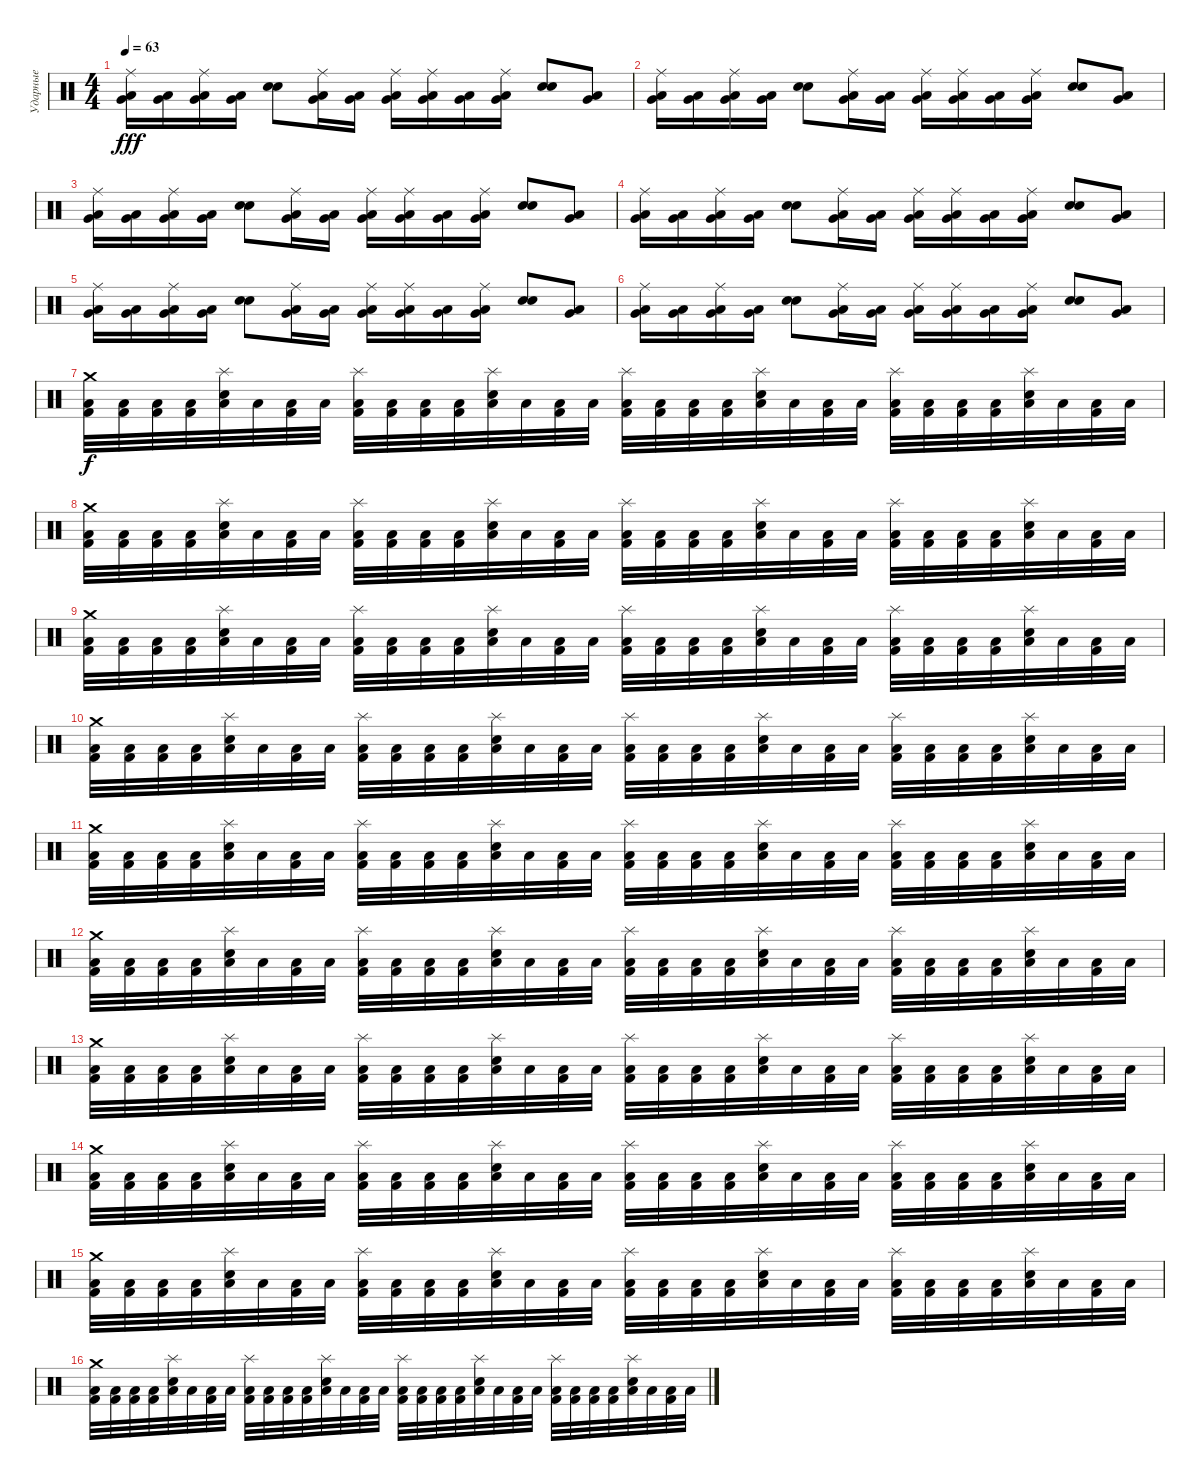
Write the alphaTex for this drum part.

\track ("Ударные" "Ударные") {instrument percussion}
\staff {score}
\articulation defaults
\ts (4 4)
\tempo 63
\clef neutral
\ks c
("Ride (middle)" "Low Tom (hit)" "Very Low Tom (hit)").16{dy fff} ("Low Tom (hit)" "Very Low Tom (hit)").16 ("Ride (middle)" "Low Tom (hit)" "Very Low Tom (hit)").16 ("Very Low Tom (hit)" "Low Floor Tom (hit)").16 ("Electric Snare (hit)" "Electric Snare (hit)").8 ("Ride (middle)" "Low Tom (hit)" "Very Low Tom (hit)").16 ("Very Low Tom (hit)" "Low Floor Tom (hit)").16 ("Ride (middle)" "Very Low Tom (hit)" "Low Floor Tom (hit)").16 ("Ride (middle)" "Low Tom (hit)" "Very Low Tom (hit)").16 ("Low Tom (hit)" "Very Low Tom (hit)").16 ("Ride (middle)" "Very Low Tom (hit)" "Low Floor Tom (hit)").16 ("Electric Snare (hit)" "Electric Snare (hit)").8 ("Very Low Tom (hit)" "Low Floor Tom (hit)").8 |
("Ride (middle)" "Low Tom (hit)" "Very Low Tom (hit)").16 ("Low Tom (hit)" "Very Low Tom (hit)").16 ("Ride (middle)" "Low Tom (hit)" "Very Low Tom (hit)").16 ("Very Low Tom (hit)" "Low Floor Tom (hit)").16 ("Electric Snare (hit)" "Electric Snare (hit)").8 ("Ride (middle)" "Low Tom (hit)" "Very Low Tom (hit)").16 ("Very Low Tom (hit)" "Low Floor Tom (hit)").16 ("Ride (middle)" "Very Low Tom (hit)" "Low Floor Tom (hit)").16 ("Ride (middle)" "Low Tom (hit)" "Very Low Tom (hit)").16 ("Low Tom (hit)" "Very Low Tom (hit)").16 ("Ride (middle)" "Very Low Tom (hit)" "Low Floor Tom (hit)").16 ("Electric Snare (hit)" "Electric Snare (hit)").8 ("Very Low Tom (hit)" "Low Floor Tom (hit)").8 |
("Ride (middle)" "Low Tom (hit)" "Very Low Tom (hit)").16 ("Low Tom (hit)" "Very Low Tom (hit)").16 ("Ride (middle)" "Low Tom (hit)" "Very Low Tom (hit)").16 ("Very Low Tom (hit)" "Low Floor Tom (hit)").16 ("Electric Snare (hit)" "Electric Snare (hit)").8 ("Ride (middle)" "Low Tom (hit)" "Very Low Tom (hit)").16 ("Very Low Tom (hit)" "Low Floor Tom (hit)").16 ("Ride (middle)" "Very Low Tom (hit)" "Low Floor Tom (hit)").16 ("Ride (middle)" "Low Tom (hit)" "Very Low Tom (hit)").16 ("Low Tom (hit)" "Very Low Tom (hit)").16 ("Ride (middle)" "Very Low Tom (hit)" "Low Floor Tom (hit)").16 ("Electric Snare (hit)" "Electric Snare (hit)").8 ("Very Low Tom (hit)" "Low Floor Tom (hit)").8 |
("Ride (middle)" "Low Tom (hit)" "Very Low Tom (hit)").16 ("Low Tom (hit)" "Very Low Tom (hit)").16 ("Ride (middle)" "Low Tom (hit)" "Very Low Tom (hit)").16 ("Very Low Tom (hit)" "Low Floor Tom (hit)").16 ("Electric Snare (hit)" "Electric Snare (hit)").8 ("Ride (middle)" "Low Tom (hit)" "Very Low Tom (hit)").16 ("Very Low Tom (hit)" "Low Floor Tom (hit)").16 ("Ride (middle)" "Very Low Tom (hit)" "Low Floor Tom (hit)").16 ("Ride (middle)" "Low Tom (hit)" "Very Low Tom (hit)").16 ("Low Tom (hit)" "Very Low Tom (hit)").16 ("Ride (middle)" "Very Low Tom (hit)" "Low Floor Tom (hit)").16 ("Electric Snare (hit)" "Electric Snare (hit)").8 ("Very Low Tom (hit)" "Low Floor Tom (hit)").8 |
("Ride (middle)" "Low Tom (hit)" "Very Low Tom (hit)").16 ("Low Tom (hit)" "Very Low Tom (hit)").16 ("Ride (middle)" "Low Tom (hit)" "Very Low Tom (hit)").16 ("Very Low Tom (hit)" "Low Floor Tom (hit)").16 ("Electric Snare (hit)" "Electric Snare (hit)").8 ("Ride (middle)" "Low Tom (hit)" "Very Low Tom (hit)").16 ("Very Low Tom (hit)" "Low Floor Tom (hit)").16 ("Ride (middle)" "Very Low Tom (hit)" "Low Floor Tom (hit)").16 ("Ride (middle)" "Low Tom (hit)" "Very Low Tom (hit)").16 ("Low Tom (hit)" "Very Low Tom (hit)").16 ("Ride (middle)" "Very Low Tom (hit)" "Low Floor Tom (hit)").16 ("Electric Snare (hit)" "Electric Snare (hit)").8 ("Very Low Tom (hit)" "Low Floor Tom (hit)").8 |
("Ride (middle)" "Low Tom (hit)" "Very Low Tom (hit)").16 ("Low Tom (hit)" "Very Low Tom (hit)").16 ("Ride (middle)" "Low Tom (hit)" "Very Low Tom (hit)").16 ("Very Low Tom (hit)" "Low Floor Tom (hit)").16 ("Electric Snare (hit)" "Electric Snare (hit)").8 ("Ride (middle)" "Low Tom (hit)" "Very Low Tom (hit)").16 ("Very Low Tom (hit)" "Low Floor Tom (hit)").16 ("Ride (middle)" "Very Low Tom (hit)" "Low Floor Tom (hit)").16 ("Ride (middle)" "Low Tom (hit)" "Very Low Tom (hit)").16 ("Low Tom (hit)" "Very Low Tom (hit)").16 ("Ride (middle)" "Very Low Tom (hit)" "Low Floor Tom (hit)").16 ("Electric Snare (hit)" "Electric Snare (hit)").8 ("Very Low Tom (hit)" "Low Floor Tom (hit)").8 |
("Crash medium (hit)" "Low Floor Tom (hit)" "Kick (hit) 2").32{dy f} ("Low Floor Tom (hit)" "Kick (hit) 2").32 ("Low Floor Tom (hit)" "Kick (hit) 2").32 ("Low Floor Tom (hit)" "Kick (hit) 2").32 ("Splash (hit)" "Low Floor Tom (hit)" "Electric Snare (hit)").32 "Low Floor Tom (hit)".32 ("Low Floor Tom (hit)" "Kick (hit) 2").32 "Low Floor Tom (hit)".32 ("Splash (hit)" "Low Floor Tom (hit)" "Kick (hit) 2").32 ("Low Floor Tom (hit)" "Kick (hit) 2").32 ("Low Floor Tom (hit)" "Kick (hit) 2").32 ("Low Floor Tom (hit)" "Kick (hit) 2").32 ("Splash (hit)" "Low Floor Tom (hit)" "Electric Snare (hit)").32 "Low Floor Tom (hit)".32 ("Low Floor Tom (hit)" "Kick (hit) 2").32 "Low Floor Tom (hit)".32 ("Splash (hit)" "Low Floor Tom (hit)" "Kick (hit) 2").32 ("Low Floor Tom (hit)" "Kick (hit) 2").32 ("Low Floor Tom (hit)" "Kick (hit) 2").32 ("Low Floor Tom (hit)" "Kick (hit) 2").32 ("Splash (hit)" "Low Floor Tom (hit)" "Electric Snare (hit)").32 "Low Floor Tom (hit)".32 ("Low Floor Tom (hit)" "Kick (hit) 2").32 "Low Floor Tom (hit)".32 ("Splash (hit)" "Low Floor Tom (hit)" "Kick (hit) 2").32 ("Low Floor Tom (hit)" "Kick (hit) 2").32 ("Low Floor Tom (hit)" "Kick (hit) 2").32 ("Low Floor Tom (hit)" "Kick (hit) 2").32 ("Splash (hit)" "Low Floor Tom (hit)" "Electric Snare (hit)").32 "Low Floor Tom (hit)".32 ("Low Floor Tom (hit)" "Kick (hit) 2").32 "Low Floor Tom (hit)".32 |
("Crash medium (hit)" "Low Floor Tom (hit)" "Kick (hit) 2").32 ("Low Floor Tom (hit)" "Kick (hit) 2").32 ("Low Floor Tom (hit)" "Kick (hit) 2").32 ("Low Floor Tom (hit)" "Kick (hit) 2").32 ("Splash (hit)" "Low Floor Tom (hit)" "Electric Snare (hit)").32 "Low Floor Tom (hit)".32 ("Low Floor Tom (hit)" "Kick (hit) 2").32 "Low Floor Tom (hit)".32 ("Splash (hit)" "Low Floor Tom (hit)" "Kick (hit) 2").32 ("Low Floor Tom (hit)" "Kick (hit) 2").32 ("Low Floor Tom (hit)" "Kick (hit) 2").32 ("Low Floor Tom (hit)" "Kick (hit) 2").32 ("Splash (hit)" "Low Floor Tom (hit)" "Electric Snare (hit)").32 "Low Floor Tom (hit)".32 ("Low Floor Tom (hit)" "Kick (hit) 2").32 "Low Floor Tom (hit)".32 ("Splash (hit)" "Low Floor Tom (hit)" "Kick (hit) 2").32 ("Low Floor Tom (hit)" "Kick (hit) 2").32 ("Low Floor Tom (hit)" "Kick (hit) 2").32 ("Low Floor Tom (hit)" "Kick (hit) 2").32 ("Splash (hit)" "Low Floor Tom (hit)" "Electric Snare (hit)").32 "Low Floor Tom (hit)".32 ("Low Floor Tom (hit)" "Kick (hit) 2").32 "Low Floor Tom (hit)".32 ("Splash (hit)" "Low Floor Tom (hit)" "Kick (hit) 2").32 ("Low Floor Tom (hit)" "Kick (hit) 2").32 ("Low Floor Tom (hit)" "Kick (hit) 2").32 ("Low Floor Tom (hit)" "Kick (hit) 2").32 ("Splash (hit)" "Low Floor Tom (hit)" "Electric Snare (hit)").32 "Low Floor Tom (hit)".32 ("Low Floor Tom (hit)" "Kick (hit) 2").32 "Low Floor Tom (hit)".32 |
("Crash medium (hit)" "Low Floor Tom (hit)" "Kick (hit) 2").32 ("Low Floor Tom (hit)" "Kick (hit) 2").32 ("Low Floor Tom (hit)" "Kick (hit) 2").32 ("Low Floor Tom (hit)" "Kick (hit) 2").32 ("Splash (hit)" "Low Floor Tom (hit)" "Electric Snare (hit)").32 "Low Floor Tom (hit)".32 ("Low Floor Tom (hit)" "Kick (hit) 2").32 "Low Floor Tom (hit)".32 ("Splash (hit)" "Low Floor Tom (hit)" "Kick (hit) 2").32 ("Low Floor Tom (hit)" "Kick (hit) 2").32 ("Low Floor Tom (hit)" "Kick (hit) 2").32 ("Low Floor Tom (hit)" "Kick (hit) 2").32 ("Splash (hit)" "Low Floor Tom (hit)" "Electric Snare (hit)").32 "Low Floor Tom (hit)".32 ("Low Floor Tom (hit)" "Kick (hit) 2").32 "Low Floor Tom (hit)".32 ("Splash (hit)" "Low Floor Tom (hit)" "Kick (hit) 2").32 ("Low Floor Tom (hit)" "Kick (hit) 2").32 ("Low Floor Tom (hit)" "Kick (hit) 2").32 ("Low Floor Tom (hit)" "Kick (hit) 2").32 ("Splash (hit)" "Low Floor Tom (hit)" "Electric Snare (hit)").32 "Low Floor Tom (hit)".32 ("Low Floor Tom (hit)" "Kick (hit) 2").32 "Low Floor Tom (hit)".32 ("Splash (hit)" "Low Floor Tom (hit)" "Kick (hit) 2").32 ("Low Floor Tom (hit)" "Kick (hit) 2").32 ("Low Floor Tom (hit)" "Kick (hit) 2").32 ("Low Floor Tom (hit)" "Kick (hit) 2").32 ("Splash (hit)" "Low Floor Tom (hit)" "Electric Snare (hit)").32 "Low Floor Tom (hit)".32 ("Low Floor Tom (hit)" "Kick (hit) 2").32 "Low Floor Tom (hit)".32 |
("Crash medium (hit)" "Low Floor Tom (hit)" "Kick (hit) 2").32 ("Low Floor Tom (hit)" "Kick (hit) 2").32 ("Low Floor Tom (hit)" "Kick (hit) 2").32 ("Low Floor Tom (hit)" "Kick (hit) 2").32 ("Splash (hit)" "Low Floor Tom (hit)" "Electric Snare (hit)").32 "Low Floor Tom (hit)".32 ("Low Floor Tom (hit)" "Kick (hit) 2").32 "Low Floor Tom (hit)".32 ("Splash (hit)" "Low Floor Tom (hit)" "Kick (hit) 2").32 ("Low Floor Tom (hit)" "Kick (hit) 2").32 ("Low Floor Tom (hit)" "Kick (hit) 2").32 ("Low Floor Tom (hit)" "Kick (hit) 2").32 ("Splash (hit)" "Low Floor Tom (hit)" "Electric Snare (hit)").32 "Low Floor Tom (hit)".32 ("Low Floor Tom (hit)" "Kick (hit) 2").32 "Low Floor Tom (hit)".32 ("Splash (hit)" "Low Floor Tom (hit)" "Kick (hit) 2").32 ("Low Floor Tom (hit)" "Kick (hit) 2").32 ("Low Floor Tom (hit)" "Kick (hit) 2").32 ("Low Floor Tom (hit)" "Kick (hit) 2").32 ("Splash (hit)" "Low Floor Tom (hit)" "Electric Snare (hit)").32 "Low Floor Tom (hit)".32 ("Low Floor Tom (hit)" "Kick (hit) 2").32 "Low Floor Tom (hit)".32 ("Splash (hit)" "Low Floor Tom (hit)" "Kick (hit) 2").32 ("Low Floor Tom (hit)" "Kick (hit) 2").32 ("Low Floor Tom (hit)" "Kick (hit) 2").32 ("Low Floor Tom (hit)" "Kick (hit) 2").32 ("Splash (hit)" "Low Floor Tom (hit)" "Electric Snare (hit)").32 "Low Floor Tom (hit)".32 ("Low Floor Tom (hit)" "Kick (hit) 2").32 "Low Floor Tom (hit)".32 |
("Crash medium (hit)" "Low Floor Tom (hit)" "Kick (hit) 2").32 ("Low Floor Tom (hit)" "Kick (hit) 2").32 ("Low Floor Tom (hit)" "Kick (hit) 2").32 ("Low Floor Tom (hit)" "Kick (hit) 2").32 ("Splash (hit)" "Low Floor Tom (hit)" "Electric Snare (hit)").32 "Low Floor Tom (hit)".32 ("Low Floor Tom (hit)" "Kick (hit) 2").32 "Low Floor Tom (hit)".32 ("Splash (hit)" "Low Floor Tom (hit)" "Kick (hit) 2").32 ("Low Floor Tom (hit)" "Kick (hit) 2").32 ("Low Floor Tom (hit)" "Kick (hit) 2").32 ("Low Floor Tom (hit)" "Kick (hit) 2").32 ("Splash (hit)" "Low Floor Tom (hit)" "Electric Snare (hit)").32 "Low Floor Tom (hit)".32 ("Low Floor Tom (hit)" "Kick (hit) 2").32 "Low Floor Tom (hit)".32 ("Splash (hit)" "Low Floor Tom (hit)" "Kick (hit) 2").32 ("Low Floor Tom (hit)" "Kick (hit) 2").32 ("Low Floor Tom (hit)" "Kick (hit) 2").32 ("Low Floor Tom (hit)" "Kick (hit) 2").32 ("Splash (hit)" "Low Floor Tom (hit)" "Electric Snare (hit)").32 "Low Floor Tom (hit)".32 ("Low Floor Tom (hit)" "Kick (hit) 2").32 "Low Floor Tom (hit)".32 ("Splash (hit)" "Low Floor Tom (hit)" "Kick (hit) 2").32 ("Low Floor Tom (hit)" "Kick (hit) 2").32 ("Low Floor Tom (hit)" "Kick (hit) 2").32 ("Low Floor Tom (hit)" "Kick (hit) 2").32 ("Splash (hit)" "Low Floor Tom (hit)" "Electric Snare (hit)").32 "Low Floor Tom (hit)".32 ("Low Floor Tom (hit)" "Kick (hit) 2").32 "Low Floor Tom (hit)".32 |
("Crash medium (hit)" "Low Floor Tom (hit)" "Kick (hit) 2").32 ("Low Floor Tom (hit)" "Kick (hit) 2").32 ("Low Floor Tom (hit)" "Kick (hit) 2").32 ("Low Floor Tom (hit)" "Kick (hit) 2").32 ("Splash (hit)" "Low Floor Tom (hit)" "Electric Snare (hit)").32 "Low Floor Tom (hit)".32 ("Low Floor Tom (hit)" "Kick (hit) 2").32 "Low Floor Tom (hit)".32 ("Splash (hit)" "Low Floor Tom (hit)" "Kick (hit) 2").32 ("Low Floor Tom (hit)" "Kick (hit) 2").32 ("Low Floor Tom (hit)" "Kick (hit) 2").32 ("Low Floor Tom (hit)" "Kick (hit) 2").32 ("Splash (hit)" "Low Floor Tom (hit)" "Electric Snare (hit)").32 "Low Floor Tom (hit)".32 ("Low Floor Tom (hit)" "Kick (hit) 2").32 "Low Floor Tom (hit)".32 ("Splash (hit)" "Low Floor Tom (hit)" "Kick (hit) 2").32 ("Low Floor Tom (hit)" "Kick (hit) 2").32 ("Low Floor Tom (hit)" "Kick (hit) 2").32 ("Low Floor Tom (hit)" "Kick (hit) 2").32 ("Splash (hit)" "Low Floor Tom (hit)" "Electric Snare (hit)").32 "Low Floor Tom (hit)".32 ("Low Floor Tom (hit)" "Kick (hit) 2").32 "Low Floor Tom (hit)".32 ("Splash (hit)" "Low Floor Tom (hit)" "Kick (hit) 2").32 ("Low Floor Tom (hit)" "Kick (hit) 2").32 ("Low Floor Tom (hit)" "Kick (hit) 2").32 ("Low Floor Tom (hit)" "Kick (hit) 2").32 ("Splash (hit)" "Low Floor Tom (hit)" "Electric Snare (hit)").32 "Low Floor Tom (hit)".32 ("Low Floor Tom (hit)" "Kick (hit) 2").32 "Low Floor Tom (hit)".32 |
("Crash medium (hit)" "Low Floor Tom (hit)" "Kick (hit) 2").32 ("Low Floor Tom (hit)" "Kick (hit) 2").32 ("Low Floor Tom (hit)" "Kick (hit) 2").32 ("Low Floor Tom (hit)" "Kick (hit) 2").32 ("Splash (hit)" "Low Floor Tom (hit)" "Electric Snare (hit)").32 "Low Floor Tom (hit)".32 ("Low Floor Tom (hit)" "Kick (hit) 2").32 "Low Floor Tom (hit)".32 ("Splash (hit)" "Low Floor Tom (hit)" "Kick (hit) 2").32 ("Low Floor Tom (hit)" "Kick (hit) 2").32 ("Low Floor Tom (hit)" "Kick (hit) 2").32 ("Low Floor Tom (hit)" "Kick (hit) 2").32 ("Splash (hit)" "Low Floor Tom (hit)" "Electric Snare (hit)").32 "Low Floor Tom (hit)".32 ("Low Floor Tom (hit)" "Kick (hit) 2").32 "Low Floor Tom (hit)".32 ("Splash (hit)" "Low Floor Tom (hit)" "Kick (hit) 2").32 ("Low Floor Tom (hit)" "Kick (hit) 2").32 ("Low Floor Tom (hit)" "Kick (hit) 2").32 ("Low Floor Tom (hit)" "Kick (hit) 2").32 ("Splash (hit)" "Low Floor Tom (hit)" "Electric Snare (hit)").32 "Low Floor Tom (hit)".32 ("Low Floor Tom (hit)" "Kick (hit) 2").32 "Low Floor Tom (hit)".32 ("Splash (hit)" "Low Floor Tom (hit)" "Kick (hit) 2").32 ("Low Floor Tom (hit)" "Kick (hit) 2").32 ("Low Floor Tom (hit)" "Kick (hit) 2").32 ("Low Floor Tom (hit)" "Kick (hit) 2").32 ("Splash (hit)" "Low Floor Tom (hit)" "Electric Snare (hit)").32 "Low Floor Tom (hit)".32 ("Low Floor Tom (hit)" "Kick (hit) 2").32 "Low Floor Tom (hit)".32 |
("Crash medium (hit)" "Low Floor Tom (hit)" "Kick (hit) 2").32 ("Low Floor Tom (hit)" "Kick (hit) 2").32 ("Low Floor Tom (hit)" "Kick (hit) 2").32 ("Low Floor Tom (hit)" "Kick (hit) 2").32 ("Splash (hit)" "Low Floor Tom (hit)" "Electric Snare (hit)").32 "Low Floor Tom (hit)".32 ("Low Floor Tom (hit)" "Kick (hit) 2").32 "Low Floor Tom (hit)".32 ("Splash (hit)" "Low Floor Tom (hit)" "Kick (hit) 2").32 ("Low Floor Tom (hit)" "Kick (hit) 2").32 ("Low Floor Tom (hit)" "Kick (hit) 2").32 ("Low Floor Tom (hit)" "Kick (hit) 2").32 ("Splash (hit)" "Low Floor Tom (hit)" "Electric Snare (hit)").32 "Low Floor Tom (hit)".32 ("Low Floor Tom (hit)" "Kick (hit) 2").32 "Low Floor Tom (hit)".32 ("Splash (hit)" "Low Floor Tom (hit)" "Kick (hit) 2").32 ("Low Floor Tom (hit)" "Kick (hit) 2").32 ("Low Floor Tom (hit)" "Kick (hit) 2").32 ("Low Floor Tom (hit)" "Kick (hit) 2").32 ("Splash (hit)" "Low Floor Tom (hit)" "Electric Snare (hit)").32 "Low Floor Tom (hit)".32 ("Low Floor Tom (hit)" "Kick (hit) 2").32 "Low Floor Tom (hit)".32 ("Splash (hit)" "Low Floor Tom (hit)" "Kick (hit) 2").32 ("Low Floor Tom (hit)" "Kick (hit) 2").32 ("Low Floor Tom (hit)" "Kick (hit) 2").32 ("Low Floor Tom (hit)" "Kick (hit) 2").32 ("Splash (hit)" "Low Floor Tom (hit)" "Electric Snare (hit)").32 "Low Floor Tom (hit)".32 ("Low Floor Tom (hit)" "Kick (hit) 2").32 "Low Floor Tom (hit)".32 |
("Crash medium (hit)" "Low Floor Tom (hit)" "Kick (hit) 2").32 ("Low Floor Tom (hit)" "Kick (hit) 2").32 ("Low Floor Tom (hit)" "Kick (hit) 2").32 ("Low Floor Tom (hit)" "Kick (hit) 2").32 ("Splash (hit)" "Low Floor Tom (hit)" "Electric Snare (hit)").32 "Low Floor Tom (hit)".32 ("Low Floor Tom (hit)" "Kick (hit) 2").32 "Low Floor Tom (hit)".32 ("Splash (hit)" "Low Floor Tom (hit)" "Kick (hit) 2").32 ("Low Floor Tom (hit)" "Kick (hit) 2").32 ("Low Floor Tom (hit)" "Kick (hit) 2").32 ("Low Floor Tom (hit)" "Kick (hit) 2").32 ("Splash (hit)" "Low Floor Tom (hit)" "Electric Snare (hit)").32 "Low Floor Tom (hit)".32 ("Low Floor Tom (hit)" "Kick (hit) 2").32 "Low Floor Tom (hit)".32 ("Splash (hit)" "Low Floor Tom (hit)" "Kick (hit) 2").32 ("Low Floor Tom (hit)" "Kick (hit) 2").32 ("Low Floor Tom (hit)" "Kick (hit) 2").32 ("Low Floor Tom (hit)" "Kick (hit) 2").32 ("Splash (hit)" "Low Floor Tom (hit)" "Electric Snare (hit)").32 "Low Floor Tom (hit)".32 ("Low Floor Tom (hit)" "Kick (hit) 2").32 "Low Floor Tom (hit)".32 ("Splash (hit)" "Low Floor Tom (hit)" "Kick (hit) 2").32 ("Low Floor Tom (hit)" "Kick (hit) 2").32 ("Low Floor Tom (hit)" "Kick (hit) 2").32 ("Low Floor Tom (hit)" "Kick (hit) 2").32 ("Splash (hit)" "Low Floor Tom (hit)" "Electric Snare (hit)").32 "Low Floor Tom (hit)".32 ("Low Floor Tom (hit)" "Kick (hit) 2").32 "Low Floor Tom (hit)".32 |
("Crash medium (hit)" "Low Floor Tom (hit)" "Kick (hit) 2").32 ("Low Floor Tom (hit)" "Kick (hit) 2").32 ("Low Floor Tom (hit)" "Kick (hit) 2").32 ("Low Floor Tom (hit)" "Kick (hit) 2").32 ("Splash (hit)" "Low Floor Tom (hit)" "Electric Snare (hit)").32 "Low Floor Tom (hit)".32 ("Low Floor Tom (hit)" "Kick (hit) 2").32 "Low Floor Tom (hit)".32 ("Splash (hit)" "Low Floor Tom (hit)" "Kick (hit) 2").32 ("Low Floor Tom (hit)" "Kick (hit) 2").32 ("Low Floor Tom (hit)" "Kick (hit) 2").32 ("Low Floor Tom (hit)" "Kick (hit) 2").32 ("Splash (hit)" "Low Floor Tom (hit)" "Electric Snare (hit)").32 "Low Floor Tom (hit)".32 ("Low Floor Tom (hit)" "Kick (hit) 2").32 "Low Floor Tom (hit)".32 ("Splash (hit)" "Low Floor Tom (hit)" "Kick (hit) 2").32 ("Low Floor Tom (hit)" "Kick (hit) 2").32 ("Low Floor Tom (hit)" "Kick (hit) 2").32 ("Low Floor Tom (hit)" "Kick (hit) 2").32 ("Splash (hit)" "Low Floor Tom (hit)" "Electric Snare (hit)").32 "Low Floor Tom (hit)".32 ("Low Floor Tom (hit)" "Kick (hit) 2").32 "Low Floor Tom (hit)".32 ("Splash (hit)" "Low Floor Tom (hit)" "Kick (hit) 2").32 ("Low Floor Tom (hit)" "Kick (hit) 2").32 ("Low Floor Tom (hit)" "Kick (hit) 2").32 ("Low Floor Tom (hit)" "Kick (hit) 2").32 ("Splash (hit)" "Low Floor Tom (hit)" "Electric Snare (hit)").32 "Low Floor Tom (hit)".32 ("Low Floor Tom (hit)" "Kick (hit) 2").32 "Low Floor Tom (hit)".32
